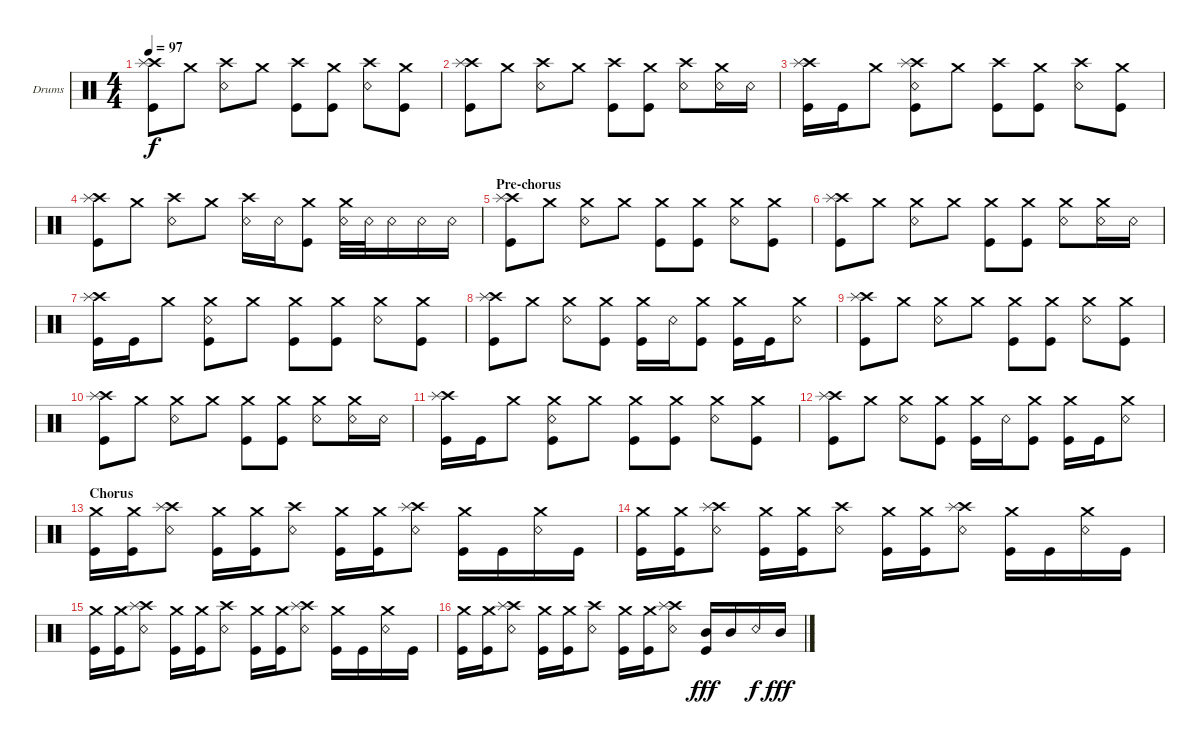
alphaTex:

\bracketExtendMode groupsimilarinstruments
\firstSystemTrackNameOrientation horizontal
\otherSystemsTrackNameOrientation horizontal
\track ("Drumkit" "Drums") {instrument percussion}
\staff {score}
\articulation defaults
\ts (4 4)
\tempo 97
\clef neutral
\scale
0.333333
\ks c
("Kick (hit)" "Crash high (hit)" "Splash (hit)").8{dy f} "Crash medium (hit)".8 ("Crash high (hit)" "Snare (rim shot)").8 "Crash medium (hit)".8 ("Kick (hit)" "Crash high (hit)").8 ("Kick (hit)" "Crash medium (hit)").8 ("Snare (rim shot)" "Crash high (hit)").8 ("Kick (hit)" "Crash medium (hit)").8 |
\scale
0.333333 ("Kick (hit)" "Crash high (hit)" "Splash (hit)").8 "Crash medium (hit)".8 ("Crash high (hit)" "Snare (rim shot)").8 "Crash medium (hit)".8 ("Kick (hit)" "Crash high (hit)").8 ("Kick (hit)" "Crash medium (hit)").8 ("Snare (rim shot)" "Crash high (hit)").8 ("Snare (rim shot)" "Crash medium (hit)").16 "Snare (rim shot)".16 |
\scale
0.333333 ("Kick (hit)" "Crash high (hit)" "Splash (hit)").16 "Kick (hit)".16 "Crash medium (hit)".8 ("Kick (hit)" "Crash high (hit)" "Splash (hit)" "Snare (rim shot)").8 "Crash medium (hit)".8 ("Kick (hit)" "Crash high (hit)").8 ("Kick (hit)" "Crash medium (hit)").8 ("Snare (rim shot)" "Crash high (hit)").8 ("Kick (hit)" "Crash medium (hit)").8 |
\scale
0.333333 ("Kick (hit)" "Crash high (hit)" "Splash (hit)").8 "Crash medium (hit)".8 ("Crash high (hit)" "Snare (rim shot)").8 "Crash medium (hit)".8 ("Crash high (hit)" "Snare (rim shot)").16 "Snare (rim shot)".16 ("Kick (hit)" "Crash medium (hit)").8 ("Snare (rim shot)" "Crash medium (hit)").32 "Snare (rim shot)".32 "Snare (rim shot)".16 "Snare (rim shot)".16 "Snare (rim shot)".16 |
\section ("" "Pre-chorus")
\scale
0.333333 ("Kick (hit)" "Crash high (hit)" "Splash (hit)").8 "Crash medium (hit)".8 ("Snare (rim shot)" "Crash medium (hit)").8 "Crash medium (hit)".8 ("Kick (hit)" "Crash medium (hit)").8 ("Kick (hit)" "Crash medium (hit)").8 ("Snare (rim shot)" "Crash medium (hit)").8 ("Kick (hit)" "Crash medium (hit)").8 |
\scale
0.333333 ("Kick (hit)" "Crash high (hit)" "Splash (hit)").8 "Crash medium (hit)".8 ("Snare (rim shot)" "Crash medium (hit)").8 "Crash medium (hit)".8 ("Kick (hit)" "Crash medium (hit)").8 ("Kick (hit)" "Crash medium (hit)").8 ("Snare (rim shot)" "Crash medium (hit)").8 ("Snare (rim shot)" "Crash medium (hit)").16 "Snare (rim shot)".16 |
\scale
0.333333 ("Kick (hit)" "Crash high (hit)" "Splash (hit)").16 "Kick (hit)".16 "Crash medium (hit)".8 ("Kick (hit)" "Snare (rim shot)" "Crash medium (hit)").8 "Crash medium (hit)".8 ("Kick (hit)" "Crash medium (hit)").8 ("Kick (hit)" "Crash medium (hit)").8 ("Snare (rim shot)" "Crash medium (hit)").8 ("Kick (hit)" "Crash medium (hit)").8 |
\scale
0.333333 ("Kick (hit)" "Crash high (hit)" "Splash (hit)").8 "Crash medium (hit)".8 ("Snare (rim shot)" "Crash medium (hit)").8 ("Kick (hit)" "Crash medium (hit)").8 ("Kick (hit)" "Crash medium (hit)").16 "Snare (rim shot)".16 ("Kick (hit)" "Crash medium (hit)").8 ("Kick (hit)" "Crash medium (hit)").16 "Kick (hit)".16 ("Snare (rim shot)" "Crash medium (hit)").8 |
\scale
0.333333 ("Kick (hit)" "Crash high (hit)" "Splash (hit)").8 "Crash medium (hit)".8 ("Snare (rim shot)" "Crash medium (hit)").8 "Crash medium (hit)".8 ("Kick (hit)" "Crash medium (hit)").8 ("Kick (hit)" "Crash medium (hit)").8 ("Snare (rim shot)" "Crash medium (hit)").8 ("Kick (hit)" "Crash medium (hit)").8 |
\scale
0.333333 ("Kick (hit)" "Crash high (hit)" "Splash (hit)").8 "Crash medium (hit)".8 ("Snare (rim shot)" "Crash medium (hit)").8 "Crash medium (hit)".8 ("Kick (hit)" "Crash medium (hit)").8 ("Kick (hit)" "Crash medium (hit)").8 ("Snare (rim shot)" "Crash medium (hit)").8 ("Snare (rim shot)" "Crash medium (hit)").16 "Snare (rim shot)".16 |
\scale
0.333333 ("Kick (hit)" "Crash high (hit)" "Splash (hit)").16 "Kick (hit)".16 "Crash medium (hit)".8 ("Kick (hit)" "Snare (rim shot)" "Crash medium (hit)").8 "Crash medium (hit)".8 ("Kick (hit)" "Crash medium (hit)").8 ("Kick (hit)" "Crash medium (hit)").8 ("Snare (rim shot)" "Crash medium (hit)").8 ("Kick (hit)" "Crash medium (hit)").8 |
\scale
0.333333 ("Kick (hit)" "Crash high (hit)" "Splash (hit)").8 "Crash medium (hit)".8 ("Snare (rim shot)" "Crash medium (hit)").8 ("Kick (hit)" "Crash medium (hit)").8 ("Kick (hit)" "Crash medium (hit)").16 "Snare (rim shot)".16 ("Kick (hit)" "Crash medium (hit)").8 ("Kick (hit)" "Crash medium (hit)").16 "Kick (hit)".16 ("Snare (rim shot)" "Crash medium (hit)").8 |
\section ("" "Chorus")
\scale
0.333333 ("Kick (hit)" "Crash medium (hit)").16 ("Kick (hit)" "Crash medium (hit)").16 ("Snare (rim shot)" "Crash high (hit)" "Splash (hit)").8 ("Kick (hit)" "Crash medium (hit)").16 ("Kick (hit)" "Crash medium (hit)").16 ("Snare (rim shot)" "Crash high (hit)").8 ("Kick (hit)" "Crash medium (hit)").16 ("Kick (hit)" "Crash medium (hit)").16 ("Snare (rim shot)" "Crash high (hit)" "Splash (hit)").8 ("Kick (hit)" "Crash medium (hit)").16 "Kick (hit)".16 ("Snare (rim shot)" "Crash medium (hit)").16 "Kick (hit)".16 |
\scale
0.333333 ("Kick (hit)" "Crash medium (hit)").16 ("Kick (hit)" "Crash medium (hit)").16 ("Snare (rim shot)" "Crash high (hit)" "Splash (hit)").8 ("Kick (hit)" "Crash medium (hit)").16 ("Kick (hit)" "Crash medium (hit)").16 ("Snare (rim shot)" "Crash high (hit)").8 ("Kick (hit)" "Crash medium (hit)").16 ("Kick (hit)" "Crash medium (hit)").16 ("Snare (rim shot)" "Crash high (hit)" "Splash (hit)").8 ("Kick (hit)" "Crash medium (hit)").16 "Kick (hit)".16 ("Snare (rim shot)" "Crash medium (hit)").16 "Kick (hit)".16 |
\scale
0.333333 ("Kick (hit)" "Crash medium (hit)").16 ("Kick (hit)" "Crash medium (hit)").16 ("Snare (rim shot)" "Crash high (hit)" "Splash (hit)").8 ("Kick (hit)" "Crash medium (hit)").16 ("Kick (hit)" "Crash medium (hit)").16 ("Snare (rim shot)" "Crash high (hit)").8 ("Kick (hit)" "Crash medium (hit)").16 ("Kick (hit)" "Crash medium (hit)").16 ("Snare (rim shot)" "Crash high (hit)" "Splash (hit)").8 ("Kick (hit)" "Crash medium (hit)").16 "Kick (hit)".16 ("Snare (rim shot)" "Crash medium (hit)").16 "Kick (hit)".16 |
\scale
0.333333 ("Kick (hit)" "Crash medium (hit)").16 ("Kick (hit)" "Crash medium (hit)").16 ("Snare (rim shot)" "Crash high (hit)" "Splash (hit)").8 ("Kick (hit)" "Crash medium (hit)").16 ("Kick (hit)" "Crash medium (hit)").16 ("Snare (rim shot)" "Crash high (hit)").8 ("Kick (hit)" "Crash medium (hit)").16 ("Kick (hit)" "Crash medium (hit)").16 ("Snare (rim shot)" "Crash high (hit)" "Splash (hit)").8 ("Kick (hit)" "Mid Tom (hit)").16{dy fff} "Mid Tom (hit)".16 "Snare (rim shot)".16{dy f} "Mid Tom (hit)".16{dy fff}
